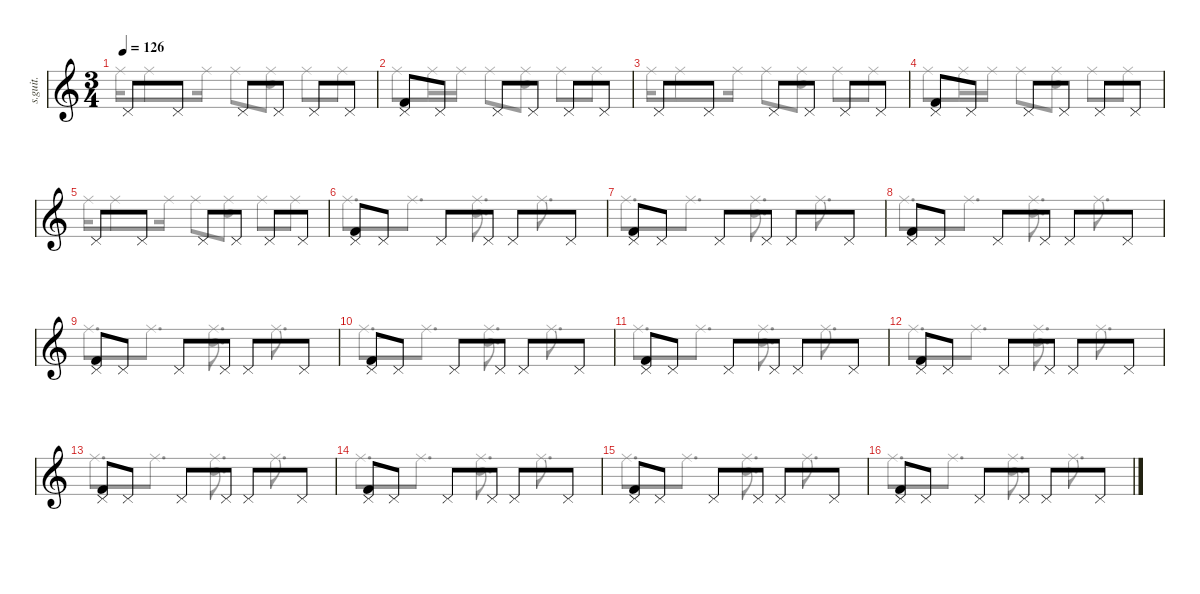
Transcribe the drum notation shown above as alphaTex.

\defaultSystemsLayout 4
\hideDynamics
\bracketExtendMode nobrackets
\track ("Percussion" "s.guit.") {instrument percussion}
\staff {score}
\articulation defaults
\voice
\ts (3 4)
\tempo 126
\clef g2
\ks c "Pedal Hi-Hat (hit)".8{lyrics (0 "") lyrics (1 "") lyrics (2 "") lyrics (3 "") lyrics (4 "") dy mf} "Pedal Hi-Hat (hit)".8{lyrics (0 "") lyrics (1 "") lyrics (2 "") lyrics (3 "") lyrics (4 "")} "Pedal Hi-Hat (hit)".8{lyrics (0 "") lyrics (1 "") lyrics (2 "") lyrics (3 "") lyrics (4 "")} "Pedal Hi-Hat (hit)".8{lyrics (0 "") lyrics (1 "") lyrics (2 "") lyrics (3 "") lyrics (4 "")} "Pedal Hi-Hat (hit)".8{lyrics (0 "") lyrics (1 "") lyrics (2 "") lyrics (3 "") lyrics (4 "")} "Pedal Hi-Hat (hit)".8{lyrics (0 "") lyrics (1 "") lyrics (2 "") lyrics (3 "") lyrics (4 "")}
|
("Pedal Hi-Hat (hit)" "Kick (hit) 2").8{lyrics (0 "") lyrics (1 "") lyrics (2 "") lyrics (3 "") lyrics (4 "")} "Pedal Hi-Hat (hit)".8{lyrics (0 "") lyrics (1 "") lyrics (2 "") lyrics (3 "") lyrics (4 "")} "Pedal Hi-Hat (hit)".8{lyrics (0 "") lyrics (1 "") lyrics (2 "") lyrics (3 "") lyrics (4 "")} "Pedal Hi-Hat (hit)".8{lyrics (0 "") lyrics (1 "") lyrics (2 "") lyrics (3 "") lyrics (4 "")} "Pedal Hi-Hat (hit)".8{lyrics (0 "") lyrics (1 "") lyrics (2 "") lyrics (3 "") lyrics (4 "")} "Pedal Hi-Hat (hit)".8{lyrics (0 "") lyrics (1 "") lyrics (2 "") lyrics (3 "") lyrics (4 "")} |
"Pedal Hi-Hat (hit)".8{lyrics (0 "") lyrics (1 "") lyrics (2 "") lyrics (3 "") lyrics (4 "")} "Pedal Hi-Hat (hit)".8{lyrics (0 "") lyrics (1 "") lyrics (2 "") lyrics (3 "") lyrics (4 "")} "Pedal Hi-Hat (hit)".8{lyrics (0 "") lyrics (1 "") lyrics (2 "") lyrics (3 "") lyrics (4 "")} "Pedal Hi-Hat (hit)".8{lyrics (0 "") lyrics (1 "") lyrics (2 "") lyrics (3 "") lyrics (4 "")} "Pedal Hi-Hat (hit)".8{lyrics (0 "") lyrics (1 "") lyrics (2 "") lyrics (3 "") lyrics (4 "")} "Pedal Hi-Hat (hit)".8{lyrics (0 "") lyrics (1 "") lyrics (2 "") lyrics (3 "") lyrics (4 "")} |
("Pedal Hi-Hat (hit)" "Kick (hit) 2").8{lyrics (0 "") lyrics (1 "") lyrics (2 "") lyrics (3 "") lyrics (4 "")} "Pedal Hi-Hat (hit)".8{lyrics (0 "") lyrics (1 "") lyrics (2 "") lyrics (3 "") lyrics (4 "")} "Pedal Hi-Hat (hit)".8{lyrics (0 "") lyrics (1 "") lyrics (2 "") lyrics (3 "") lyrics (4 "")} "Pedal Hi-Hat (hit)".8{lyrics (0 "") lyrics (1 "") lyrics (2 "") lyrics (3 "") lyrics (4 "")} "Pedal Hi-Hat (hit)".8{lyrics (0 "") lyrics (1 "") lyrics (2 "") lyrics (3 "") lyrics (4 "")} "Pedal Hi-Hat (hit)".8{lyrics (0 "") lyrics (1 "") lyrics (2 "") lyrics (3 "") lyrics (4 "")} |
"Pedal Hi-Hat (hit)".8{lyrics (0 "") lyrics (1 "") lyrics (2 "") lyrics (3 "") lyrics (4 "")} "Pedal Hi-Hat (hit)".8{lyrics (0 "") lyrics (1 "") lyrics (2 "") lyrics (3 "") lyrics (4 "")} "Pedal Hi-Hat (hit)".8{lyrics (0 "") lyrics (1 "") lyrics (2 "") lyrics (3 "") lyrics (4 "")} "Pedal Hi-Hat (hit)".8{lyrics (0 "") lyrics (1 "") lyrics (2 "") lyrics (3 "") lyrics (4 "")} "Pedal Hi-Hat (hit)".8{lyrics (0 "") lyrics (1 "") lyrics (2 "") lyrics (3 "") lyrics (4 "")} "Pedal Hi-Hat (hit)".8{lyrics (0 "") lyrics (1 "") lyrics (2 "") lyrics (3 "") lyrics (4 "")} |
("Pedal Hi-Hat (hit)" "Kick (hit) 2").8{lyrics (0 "") lyrics (1 "") lyrics (2 "") lyrics (3 "") lyrics (4 "")} "Pedal Hi-Hat (hit)".8{lyrics (0 "") lyrics (1 "") lyrics (2 "") lyrics (3 "") lyrics (4 "")} "Pedal Hi-Hat (hit)".8{lyrics (0 "") lyrics (1 "") lyrics (2 "") lyrics (3 "") lyrics (4 "")} "Pedal Hi-Hat (hit)".8{lyrics (0 "") lyrics (1 "") lyrics (2 "") lyrics (3 "") lyrics (4 "")} "Pedal Hi-Hat (hit)".8{lyrics (0 "") lyrics (1 "") lyrics (2 "") lyrics (3 "") lyrics (4 "")} "Pedal Hi-Hat (hit)".8{lyrics (0 "") lyrics (1 "") lyrics (2 "") lyrics (3 "") lyrics (4 "")} |
("Pedal Hi-Hat (hit)" "Kick (hit) 2").8{lyrics (0 "") lyrics (1 "") lyrics (2 "") lyrics (3 "") lyrics (4 "")} "Pedal Hi-Hat (hit)".8{lyrics (0 "") lyrics (1 "") lyrics (2 "") lyrics (3 "") lyrics (4 "")} "Pedal Hi-Hat (hit)".8{lyrics (0 "") lyrics (1 "") lyrics (2 "") lyrics (3 "") lyrics (4 "")} "Pedal Hi-Hat (hit)".8{lyrics (0 "") lyrics (1 "") lyrics (2 "") lyrics (3 "") lyrics (4 "")} "Pedal Hi-Hat (hit)".8{lyrics (0 "") lyrics (1 "") lyrics (2 "") lyrics (3 "") lyrics (4 "")} "Pedal Hi-Hat (hit)".8{lyrics (0 "") lyrics (1 "") lyrics (2 "") lyrics (3 "") lyrics (4 "")} |
("Pedal Hi-Hat (hit)" "Kick (hit) 2").8{lyrics (0 "") lyrics (1 "") lyrics (2 "") lyrics (3 "") lyrics (4 "")} "Pedal Hi-Hat (hit)".8{lyrics (0 "") lyrics (1 "") lyrics (2 "") lyrics (3 "") lyrics (4 "")} "Pedal Hi-Hat (hit)".8{lyrics (0 "") lyrics (1 "") lyrics (2 "") lyrics (3 "") lyrics (4 "")} "Pedal Hi-Hat (hit)".8{lyrics (0 "") lyrics (1 "") lyrics (2 "") lyrics (3 "") lyrics (4 "")} "Pedal Hi-Hat (hit)".8{lyrics (0 "") lyrics (1 "") lyrics (2 "") lyrics (3 "") lyrics (4 "")} "Pedal Hi-Hat (hit)".8{lyrics (0 "") lyrics (1 "") lyrics (2 "") lyrics (3 "") lyrics (4 "")} |
("Pedal Hi-Hat (hit)" "Kick (hit) 2").8{lyrics (0 "") lyrics (1 "") lyrics (2 "") lyrics (3 "") lyrics (4 "")} "Pedal Hi-Hat (hit)".8{lyrics (0 "") lyrics (1 "") lyrics (2 "") lyrics (3 "") lyrics (4 "")} "Pedal Hi-Hat (hit)".8{lyrics (0 "") lyrics (1 "") lyrics (2 "") lyrics (3 "") lyrics (4 "")} "Pedal Hi-Hat (hit)".8{lyrics (0 "") lyrics (1 "") lyrics (2 "") lyrics (3 "") lyrics (4 "")} "Pedal Hi-Hat (hit)".8{lyrics (0 "") lyrics (1 "") lyrics (2 "") lyrics (3 "") lyrics (4 "")} "Pedal Hi-Hat (hit)".8{lyrics (0 "") lyrics (1 "") lyrics (2 "") lyrics (3 "") lyrics (4 "")} |
("Pedal Hi-Hat (hit)" "Kick (hit) 2").8{lyrics (0 "") lyrics (1 "") lyrics (2 "") lyrics (3 "") lyrics (4 "")} "Pedal Hi-Hat (hit)".8{lyrics (0 "") lyrics (1 "") lyrics (2 "") lyrics (3 "") lyrics (4 "")} "Pedal Hi-Hat (hit)".8{lyrics (0 "") lyrics (1 "") lyrics (2 "") lyrics (3 "") lyrics (4 "")} "Pedal Hi-Hat (hit)".8{lyrics (0 "") lyrics (1 "") lyrics (2 "") lyrics (3 "") lyrics (4 "")} "Pedal Hi-Hat (hit)".8{lyrics (0 "") lyrics (1 "") lyrics (2 "") lyrics (3 "") lyrics (4 "")} "Pedal Hi-Hat (hit)".8{lyrics (0 "") lyrics (1 "") lyrics (2 "") lyrics (3 "") lyrics (4 "")} |
("Pedal Hi-Hat (hit)" "Kick (hit) 2").8{lyrics (0 "") lyrics (1 "") lyrics (2 "") lyrics (3 "") lyrics (4 "")} "Pedal Hi-Hat (hit)".8{lyrics (0 "") lyrics (1 "") lyrics (2 "") lyrics (3 "") lyrics (4 "")} "Pedal Hi-Hat (hit)".8{lyrics (0 "") lyrics (1 "") lyrics (2 "") lyrics (3 "") lyrics (4 "")} "Pedal Hi-Hat (hit)".8{lyrics (0 "") lyrics (1 "") lyrics (2 "") lyrics (3 "") lyrics (4 "")} "Pedal Hi-Hat (hit)".8{lyrics (0 "") lyrics (1 "") lyrics (2 "") lyrics (3 "") lyrics (4 "")} "Pedal Hi-Hat (hit)".8{lyrics (0 "") lyrics (1 "") lyrics (2 "") lyrics (3 "") lyrics (4 "")} |
("Pedal Hi-Hat (hit)" "Kick (hit) 2").8{lyrics (0 "") lyrics (1 "") lyrics (2 "") lyrics (3 "") lyrics (4 "")} "Pedal Hi-Hat (hit)".8{lyrics (0 "") lyrics (1 "") lyrics (2 "") lyrics (3 "") lyrics (4 "")} "Pedal Hi-Hat (hit)".8{lyrics (0 "") lyrics (1 "") lyrics (2 "") lyrics (3 "") lyrics (4 "")} "Pedal Hi-Hat (hit)".8{lyrics (0 "") lyrics (1 "") lyrics (2 "") lyrics (3 "") lyrics (4 "")} "Pedal Hi-Hat (hit)".8{lyrics (0 "") lyrics (1 "") lyrics (2 "") lyrics (3 "") lyrics (4 "")} "Pedal Hi-Hat (hit)".8{lyrics (0 "") lyrics (1 "") lyrics (2 "") lyrics (3 "") lyrics (4 "")} |
("Pedal Hi-Hat (hit)" "Kick (hit) 2").8{lyrics (0 "") lyrics (1 "") lyrics (2 "") lyrics (3 "") lyrics (4 "")} "Pedal Hi-Hat (hit)".8{lyrics (0 "") lyrics (1 "") lyrics (2 "") lyrics (3 "") lyrics (4 "")} "Pedal Hi-Hat (hit)".8{lyrics (0 "") lyrics (1 "") lyrics (2 "") lyrics (3 "") lyrics (4 "")} "Pedal Hi-Hat (hit)".8{lyrics (0 "") lyrics (1 "") lyrics (2 "") lyrics (3 "") lyrics (4 "")} "Pedal Hi-Hat (hit)".8{lyrics (0 "") lyrics (1 "") lyrics (2 "") lyrics (3 "") lyrics (4 "")} "Pedal Hi-Hat (hit)".8{lyrics (0 "") lyrics (1 "") lyrics (2 "") lyrics (3 "") lyrics (4 "")} |
("Pedal Hi-Hat (hit)" "Kick (hit) 2").8{lyrics (0 "") lyrics (1 "") lyrics (2 "") lyrics (3 "") lyrics (4 "")} "Pedal Hi-Hat (hit)".8{lyrics (0 "") lyrics (1 "") lyrics (2 "") lyrics (3 "") lyrics (4 "")} "Pedal Hi-Hat (hit)".8{lyrics (0 "") lyrics (1 "") lyrics (2 "") lyrics (3 "") lyrics (4 "")} "Pedal Hi-Hat (hit)".8{lyrics (0 "") lyrics (1 "") lyrics (2 "") lyrics (3 "") lyrics (4 "")} "Pedal Hi-Hat (hit)".8{lyrics (0 "") lyrics (1 "") lyrics (2 "") lyrics (3 "") lyrics (4 "")} "Pedal Hi-Hat (hit)".8{lyrics (0 "") lyrics (1 "") lyrics (2 "") lyrics (3 "") lyrics (4 "")} |
("Pedal Hi-Hat (hit)" "Kick (hit) 2").8{lyrics (0 "") lyrics (1 "") lyrics (2 "") lyrics (3 "") lyrics (4 "")} "Pedal Hi-Hat (hit)".8{lyrics (0 "") lyrics (1 "") lyrics (2 "") lyrics (3 "") lyrics (4 "")} "Pedal Hi-Hat (hit)".8{lyrics (0 "") lyrics (1 "") lyrics (2 "") lyrics (3 "") lyrics (4 "")} "Pedal Hi-Hat (hit)".8{lyrics (0 "") lyrics (1 "") lyrics (2 "") lyrics (3 "") lyrics (4 "")} "Pedal Hi-Hat (hit)".8{lyrics (0 "") lyrics (1 "") lyrics (2 "") lyrics (3 "") lyrics (4 "")} "Pedal Hi-Hat (hit)".8{lyrics (0 "") lyrics (1 "") lyrics (2 "") lyrics (3 "") lyrics (4 "")} |
("Pedal Hi-Hat (hit)" "Kick (hit) 2").8{lyrics (0 "") lyrics (1 "") lyrics (2 "") lyrics (3 "") lyrics (4 "")} "Pedal Hi-Hat (hit)".8{lyrics (0 "") lyrics (1 "") lyrics (2 "") lyrics (3 "") lyrics (4 "")} "Pedal Hi-Hat (hit)".8{lyrics (0 "") lyrics (1 "") lyrics (2 "") lyrics (3 "") lyrics (4 "")} "Pedal Hi-Hat (hit)".8{lyrics (0 "") lyrics (1 "") lyrics (2 "") lyrics (3 "") lyrics (4 "")} "Pedal Hi-Hat (hit)".8{lyrics (0 "") lyrics (1 "") lyrics (2 "") lyrics (3 "") lyrics (4 "")} "Pedal Hi-Hat (hit)".8{lyrics (0 "") lyrics (1 "") lyrics (2 "") lyrics (3 "") lyrics (4 "")}
\voice
\clef g2
\ottava regular
\simile none
\ks c "Ride (middle)".16{lyrics (0 "") lyrics (1 "") lyrics (2 "") lyrics (3 "") lyrics (4 "") dy mf} "Ride (middle)".8{lyrics (0 "") lyrics (1 "") lyrics (2 "") lyrics (3 "") lyrics (4 "")} "Ride (middle)".16{lyrics (0 "") lyrics (1 "") lyrics (2 "") lyrics (3 "") lyrics (4 "")} "Ride (middle)".8{lyrics (0 "") lyrics (1 "") lyrics (2 "") lyrics (3 "") lyrics (4 "")}
("Ride (middle)" "Snare (hit) 2").8{lyrics (0 "") lyrics (1 "") lyrics (2 "") lyrics (3 "") lyrics (4 "")} "Ride (middle)".8{lyrics (0 "") lyrics (1 "") lyrics (2 "") lyrics (3 "") lyrics (4 "")} "Ride (middle)".8{lyrics (0 "") lyrics (1 "") lyrics (2 "") lyrics (3 "") lyrics (4 "")} |
"Ride (middle)".8{lyrics (0 "") lyrics (1 "") lyrics (2 "") lyrics (3 "") lyrics (4 "")} "Ride (middle)".16{lyrics (0 "") lyrics (1 "") lyrics (2 "") lyrics (3 "") lyrics (4 "")} "Ride (middle)".16{lyrics (0 "") lyrics (1 "") lyrics (2 "") lyrics (3 "") lyrics (4 "")} "Ride (middle)".8{lyrics (0 "") lyrics (1 "") lyrics (2 "") lyrics (3 "") lyrics (4 "")} ("Ride (middle)" "Snare (hit) 2").8{lyrics (0 "") lyrics (1 "") lyrics (2 "") lyrics (3 "") lyrics (4 "")} "Ride (middle)".8{lyrics (0 "") lyrics (1 "") lyrics (2 "") lyrics (3 "") lyrics (4 "")} "Ride (middle)".8{lyrics (0 "") lyrics (1 "") lyrics (2 "") lyrics (3 "") lyrics (4 "")} |
"Ride (middle)".16{lyrics (0 "") lyrics (1 "") lyrics (2 "") lyrics (3 "") lyrics (4 "")} "Ride (middle)".8{lyrics (0 "") lyrics (1 "") lyrics (2 "") lyrics (3 "") lyrics (4 "")} "Ride (middle)".16{lyrics (0 "") lyrics (1 "") lyrics (2 "") lyrics (3 "") lyrics (4 "")} "Ride (middle)".8{lyrics (0 "") lyrics (1 "") lyrics (2 "") lyrics (3 "") lyrics (4 "")} ("Ride (middle)" "Snare (hit) 2").8{lyrics (0 "") lyrics (1 "") lyrics (2 "") lyrics (3 "") lyrics (4 "")} "Ride (middle)".8{lyrics (0 "") lyrics (1 "") lyrics (2 "") lyrics (3 "") lyrics (4 "")} "Ride (middle)".8{lyrics (0 "") lyrics (1 "") lyrics (2 "") lyrics (3 "") lyrics (4 "")} |
"Ride (middle)".8{lyrics (0 "") lyrics (1 "") lyrics (2 "") lyrics (3 "") lyrics (4 "")} "Ride (middle)".16{lyrics (0 "") lyrics (1 "") lyrics (2 "") lyrics (3 "") lyrics (4 "")} "Ride (middle)".16{lyrics (0 "") lyrics (1 "") lyrics (2 "") lyrics (3 "") lyrics (4 "")} "Ride (middle)".8{lyrics (0 "") lyrics (1 "") lyrics (2 "") lyrics (3 "") lyrics (4 "")} ("Ride (middle)" "Snare (hit) 2").8{lyrics (0 "") lyrics (1 "") lyrics (2 "") lyrics (3 "") lyrics (4 "")} "Ride (middle)".8{lyrics (0 "") lyrics (1 "") lyrics (2 "") lyrics (3 "") lyrics (4 "")} "Ride (middle)".8{lyrics (0 "") lyrics (1 "") lyrics (2 "") lyrics (3 "") lyrics (4 "")} |
"Ride (middle)".16{lyrics (0 "") lyrics (1 "") lyrics (2 "") lyrics (3 "") lyrics (4 "")} "Ride (middle)".8{lyrics (0 "") lyrics (1 "") lyrics (2 "") lyrics (3 "") lyrics (4 "")} "Ride (middle)".16{lyrics (0 "") lyrics (1 "") lyrics (2 "") lyrics (3 "") lyrics (4 "")} "Ride (middle)".8{lyrics (0 "") lyrics (1 "") lyrics (2 "") lyrics (3 "") lyrics (4 "")} ("Ride (middle)" "Snare (hit) 2").8{lyrics (0 "") lyrics (1 "") lyrics (2 "") lyrics (3 "") lyrics (4 "")} "Ride (middle)".8{lyrics (0 "") lyrics (1 "") lyrics (2 "") lyrics (3 "") lyrics (4 "")} "Ride (middle)".8{lyrics (0 "") lyrics (1 "") lyrics (2 "") lyrics (3 "") lyrics (4 "")} |
"Ride (middle)".8{d lyrics (0 "") lyrics (1 "") lyrics (2 "") lyrics (3 "") lyrics (4 "")} "Ride (middle)".8{d lyrics (0 "") lyrics (1 "") lyrics (2 "") lyrics (3 "") lyrics (4 "")} ("Ride (middle)" "Snare (hit) 2").8{d lyrics (0 "") lyrics (1 "") lyrics (2 "") lyrics (3 "") lyrics (4 "")} "Ride (middle)".8{d lyrics (0 "") lyrics (1 "") lyrics (2 "") lyrics (3 "") lyrics (4 "")} |
"Ride (middle)".8{d lyrics (0 "") lyrics (1 "") lyrics (2 "") lyrics (3 "") lyrics (4 "")} "Ride (middle)".8{d lyrics (0 "") lyrics (1 "") lyrics (2 "") lyrics (3 "") lyrics (4 "")} ("Ride (middle)" "Snare (hit) 2").8{d lyrics (0 "") lyrics (1 "") lyrics (2 "") lyrics (3 "") lyrics (4 "")} "Ride (middle)".8{d lyrics (0 "") lyrics (1 "") lyrics (2 "") lyrics (3 "") lyrics (4 "")} |
"Ride (middle)".8{d lyrics (0 "") lyrics (1 "") lyrics (2 "") lyrics (3 "") lyrics (4 "")} "Ride (middle)".8{d lyrics (0 "") lyrics (1 "") lyrics (2 "") lyrics (3 "") lyrics (4 "")} ("Ride (middle)" "Snare (hit) 2").8{d lyrics (0 "") lyrics (1 "") lyrics (2 "") lyrics (3 "") lyrics (4 "")} "Ride (middle)".8{d lyrics (0 "") lyrics (1 "") lyrics (2 "") lyrics (3 "") lyrics (4 "")} |
"Ride (middle)".8{d lyrics (0 "") lyrics (1 "") lyrics (2 "") lyrics (3 "") lyrics (4 "")} "Ride (middle)".8{d lyrics (0 "") lyrics (1 "") lyrics (2 "") lyrics (3 "") lyrics (4 "")} ("Ride (middle)" "Snare (hit) 2").8{d lyrics (0 "") lyrics (1 "") lyrics (2 "") lyrics (3 "") lyrics (4 "")} "Ride (middle)".8{d lyrics (0 "") lyrics (1 "") lyrics (2 "") lyrics (3 "") lyrics (4 "")} |
"Ride (middle)".8{d lyrics (0 "") lyrics (1 "") lyrics (2 "") lyrics (3 "") lyrics (4 "")} "Ride (middle)".8{d lyrics (0 "") lyrics (1 "") lyrics (2 "") lyrics (3 "") lyrics (4 "")} ("Ride (middle)" "Snare (hit) 2").8{d lyrics (0 "") lyrics (1 "") lyrics (2 "") lyrics (3 "") lyrics (4 "")} "Ride (middle)".8{d lyrics (0 "") lyrics (1 "") lyrics (2 "") lyrics (3 "") lyrics (4 "")} |
"Ride (middle)".8{d lyrics (0 "") lyrics (1 "") lyrics (2 "") lyrics (3 "") lyrics (4 "")} "Ride (middle)".8{d lyrics (0 "") lyrics (1 "") lyrics (2 "") lyrics (3 "") lyrics (4 "")} ("Ride (middle)" "Snare (hit) 2").8{d lyrics (0 "") lyrics (1 "") lyrics (2 "") lyrics (3 "") lyrics (4 "")} "Ride (middle)".8{d lyrics (0 "") lyrics (1 "") lyrics (2 "") lyrics (3 "") lyrics (4 "")} |
"Ride (middle)".8{d lyrics (0 "") lyrics (1 "") lyrics (2 "") lyrics (3 "") lyrics (4 "")} "Ride (middle)".8{d lyrics (0 "") lyrics (1 "") lyrics (2 "") lyrics (3 "") lyrics (4 "")} ("Ride (middle)" "Snare (hit) 2").8{d lyrics (0 "") lyrics (1 "") lyrics (2 "") lyrics (3 "") lyrics (4 "")} "Ride (middle)".8{d lyrics (0 "") lyrics (1 "") lyrics (2 "") lyrics (3 "") lyrics (4 "")} |
"Ride (middle)".8{d lyrics (0 "") lyrics (1 "") lyrics (2 "") lyrics (3 "") lyrics (4 "")} "Ride (middle)".8{d lyrics (0 "") lyrics (1 "") lyrics (2 "") lyrics (3 "") lyrics (4 "")} ("Ride (middle)" "Snare (hit) 2").8{d lyrics (0 "") lyrics (1 "") lyrics (2 "") lyrics (3 "") lyrics (4 "")} "Ride (middle)".8{d lyrics (0 "") lyrics (1 "") lyrics (2 "") lyrics (3 "") lyrics (4 "")} |
"Ride (middle)".8{d lyrics (0 "") lyrics (1 "") lyrics (2 "") lyrics (3 "") lyrics (4 "")} "Ride (middle)".8{d lyrics (0 "") lyrics (1 "") lyrics (2 "") lyrics (3 "") lyrics (4 "")} ("Ride (middle)" "Snare (hit) 2").8{d lyrics (0 "") lyrics (1 "") lyrics (2 "") lyrics (3 "") lyrics (4 "")} "Ride (middle)".8{d lyrics (0 "") lyrics (1 "") lyrics (2 "") lyrics (3 "") lyrics (4 "")} |
"Ride (middle)".8{d lyrics (0 "") lyrics (1 "") lyrics (2 "") lyrics (3 "") lyrics (4 "")} "Ride (middle)".8{d lyrics (0 "") lyrics (1 "") lyrics (2 "") lyrics (3 "") lyrics (4 "")} ("Ride (middle)" "Snare (hit) 2").8{d lyrics (0 "") lyrics (1 "") lyrics (2 "") lyrics (3 "") lyrics (4 "")} "Ride (middle)".8{d lyrics (0 "") lyrics (1 "") lyrics (2 "") lyrics (3 "") lyrics (4 "")} |
"Ride (middle)".8{d lyrics (0 "") lyrics (1 "") lyrics (2 "") lyrics (3 "") lyrics (4 "")} "Ride (middle)".8{d lyrics (0 "") lyrics (1 "") lyrics (2 "") lyrics (3 "") lyrics (4 "")} ("Ride (middle)" "Snare (hit) 2").8{d lyrics (0 "") lyrics (1 "") lyrics (2 "") lyrics (3 "") lyrics (4 "")} "Ride (middle)".8{d lyrics (0 "") lyrics (1 "") lyrics (2 "") lyrics (3 "") lyrics (4 "")}
